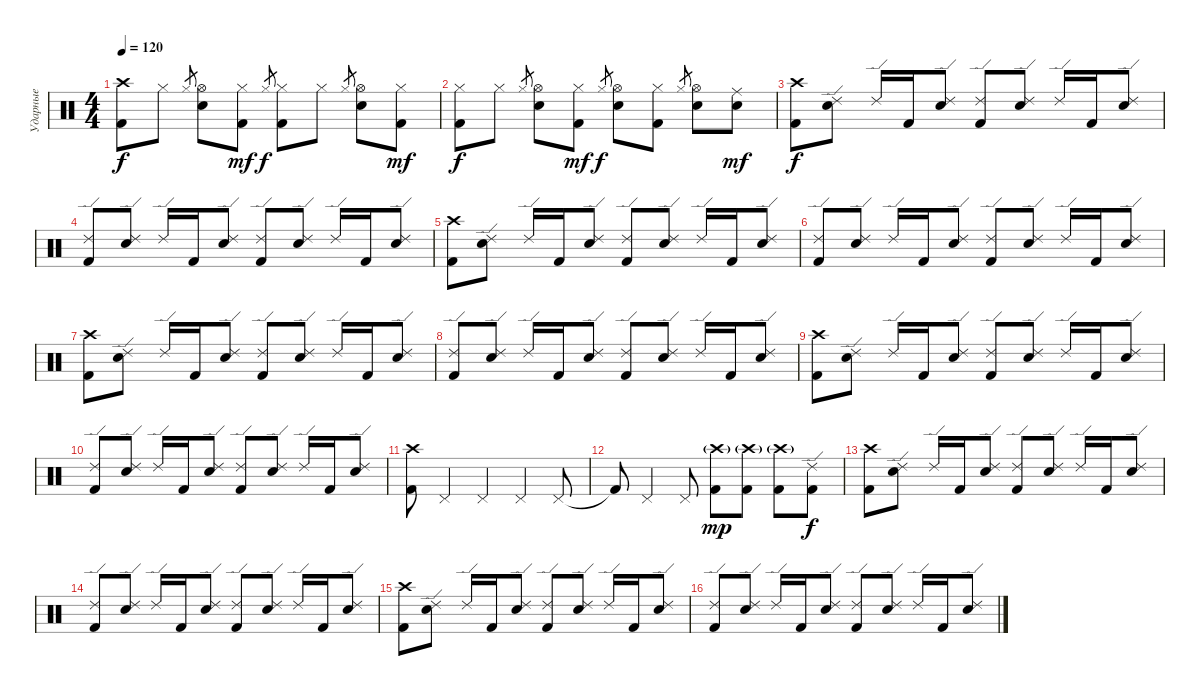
\track ("Ударные" "Ударные") {instrument percussion}
\staff {score}
\articulation defaults
\ts (4 4)
\tempo 120
\clef neutral
\ks c
("Kick (hit) 2" "Crash high (hit)").8{dy f} "Hi-Hat (closed)".8 "Hi-Hat (closed)".8{gr} ("Electric Snare (hit)" "Hi-Hat (open)").8 ("Kick (hit) 2" "Hi-Hat (closed)").8{dy mf} "Hi-Hat (closed)".8{gr dy f} ("Kick (hit) 2" "Hi-Hat (closed)").8 "Hi-Hat (closed)".8 "Hi-Hat (closed)".8{gr} ("Electric Snare (hit)" "Hi-Hat (open)").8 ("Kick (hit) 2" "Hi-Hat (closed)").8{dy mf} |
("Kick (hit) 2" "Hi-Hat (closed)").8{dy f} "Hi-Hat (closed)".8 "Hi-Hat (closed)".8{gr} ("Electric Snare (hit)" "Hi-Hat (open)").8 ("Kick (hit) 2" "Hi-Hat (closed)").8{dy mf} "Hi-Hat (closed)".8{gr dy f} ("Electric Snare (hit)" "Hi-Hat (open)").8 ("Kick (hit) 2" "Hi-Hat (closed)").8 "Hi-Hat (closed)".8{gr} ("Electric Snare (hit)" "Hi-Hat (open)").8 ("Electric Snare (hit)" "Ride (middle)").8{dy mf} |
("Kick (hit) 2" "Crash high (hit)").8{dy f} ("Electric Snare (hit)" "Ride (edge) 2").8 "Ride (edge) 2".16 "Kick (hit) 2".16 ("Electric Snare (hit)" "Ride (edge) 2").8 ("Kick (hit) 2" "Ride (edge) 2").8 ("Electric Snare (hit)" "Ride (edge) 2").8 "Ride (edge) 2".16 "Kick (hit) 2".16 ("Electric Snare (hit)" "Ride (edge) 2").8 |
("Kick (hit) 2" "Ride (edge) 2").8 ("Electric Snare (hit)" "Ride (edge) 2").8 "Ride (edge) 2".16 "Kick (hit) 2".16 ("Electric Snare (hit)" "Ride (edge) 2").8 ("Kick (hit) 2" "Ride (edge) 2").8 ("Electric Snare (hit)" "Ride (edge) 2").8 "Ride (edge) 2".16 "Kick (hit) 2".16 ("Electric Snare (hit)" "Ride (edge) 2").8 |
("Kick (hit) 2" "Crash high (hit)").8 ("Electric Snare (hit)" "Ride (edge) 2").8 "Ride (edge) 2".16 "Kick (hit) 2".16 ("Electric Snare (hit)" "Ride (edge) 2").8 ("Kick (hit) 2" "Ride (edge) 2").8 ("Electric Snare (hit)" "Ride (edge) 2").8 "Ride (edge) 2".16 "Kick (hit) 2".16 ("Electric Snare (hit)" "Ride (edge) 2").8 |
("Kick (hit) 2" "Ride (edge) 2").8 ("Electric Snare (hit)" "Ride (edge) 2").8 "Ride (edge) 2".16 "Kick (hit) 2".16 ("Electric Snare (hit)" "Ride (edge) 2").8 ("Kick (hit) 2" "Ride (edge) 2").8 ("Electric Snare (hit)" "Ride (edge) 2").8 "Ride (edge) 2".16 "Kick (hit) 2".16 ("Electric Snare (hit)" "Ride (edge) 2").8 |
("Kick (hit) 2" "Crash high (hit)").8 ("Electric Snare (hit)" "Ride (edge) 2").8 "Ride (edge) 2".16 "Kick (hit) 2".16 ("Electric Snare (hit)" "Ride (edge) 2").8 ("Kick (hit) 2" "Ride (edge) 2").8 ("Electric Snare (hit)" "Ride (edge) 2").8 "Ride (edge) 2".16 "Kick (hit) 2".16 ("Electric Snare (hit)" "Ride (edge) 2").8 |
("Kick (hit) 2" "Ride (edge) 2").8 ("Electric Snare (hit)" "Ride (edge) 2").8 "Ride (edge) 2".16 "Kick (hit) 2".16 ("Electric Snare (hit)" "Ride (edge) 2").8 ("Kick (hit) 2" "Ride (edge) 2").8 ("Electric Snare (hit)" "Ride (edge) 2").8 "Ride (edge) 2".16 "Kick (hit) 2".16 ("Electric Snare (hit)" "Ride (edge) 2").8 |
("Kick (hit) 2" "Crash high (hit)").8 ("Electric Snare (hit)" "Ride (edge) 2").8 "Ride (edge) 2".16 "Kick (hit) 2".16 ("Electric Snare (hit)" "Ride (edge) 2").8 ("Kick (hit) 2" "Ride (edge) 2").8 ("Electric Snare (hit)" "Ride (edge) 2").8 "Ride (edge) 2".16 "Kick (hit) 2".16 ("Electric Snare (hit)" "Ride (edge) 2").8 |
("Kick (hit) 2" "Ride (edge) 2").8 ("Electric Snare (hit)" "Ride (edge) 2").8 "Ride (edge) 2".16 "Kick (hit) 2".16 ("Electric Snare (hit)" "Ride (edge) 2").8 ("Kick (hit) 2" "Ride (edge) 2").8 ("Electric Snare (hit)" "Ride (edge) 2").8 "Ride (edge) 2".16 "Kick (hit) 2".16 ("Electric Snare (hit)" "Ride (edge) 2").8 |
("Kick (hit) 2" "Crash high (hit)").8 "Pedal Hi-Hat (hit)".4 "Pedal Hi-Hat (hit)".4 "Pedal Hi-Hat (hit)".4 "Pedal Hi-Hat (hit)".8 |
"Kick (hit) 2"{t}.8 "Pedal Hi-Hat (hit)".4 "Pedal Hi-Hat (hit)".8 ("Kick (hit) 2" "Crash high (hit)"{g}).8{dy mp} ("Kick (hit) 2" "Crash high (hit)"{g}).8 ("Kick (hit) 2" "Crash high (hit)"{g}).8 ("Kick (hit) 2" "Ride (edge) 2").8{dy f} |
("Kick (hit) 2" "Crash high (hit)").8 ("Electric Snare (hit)" "Ride (edge) 2").8 "Ride (edge) 2".16 "Kick (hit) 2".16 ("Electric Snare (hit)" "Ride (edge) 2").8 ("Kick (hit) 2" "Ride (edge) 2").8 ("Electric Snare (hit)" "Ride (edge) 2").8 "Ride (edge) 2".16 "Kick (hit) 2".16 ("Electric Snare (hit)" "Ride (edge) 2").8 |
("Kick (hit) 2" "Ride (edge) 2").8 ("Electric Snare (hit)" "Ride (edge) 2").8 "Ride (edge) 2".16 "Kick (hit) 2".16 ("Electric Snare (hit)" "Ride (edge) 2").8 ("Kick (hit) 2" "Ride (edge) 2").8 ("Electric Snare (hit)" "Ride (edge) 2").8 "Ride (edge) 2".16 "Kick (hit) 2".16 ("Electric Snare (hit)" "Ride (edge) 2").8 |
("Kick (hit) 2" "Crash high (hit)").8 ("Electric Snare (hit)" "Ride (edge) 2").8 "Ride (edge) 2".16 "Kick (hit) 2".16 ("Electric Snare (hit)" "Ride (edge) 2").8 ("Kick (hit) 2" "Ride (edge) 2").8 ("Electric Snare (hit)" "Ride (edge) 2").8 "Ride (edge) 2".16 "Kick (hit) 2".16 ("Electric Snare (hit)" "Ride (edge) 2").8 |
("Kick (hit) 2" "Ride (edge) 2").8 ("Electric Snare (hit)" "Ride (edge) 2").8 "Ride (edge) 2".16 "Kick (hit) 2".16 ("Electric Snare (hit)" "Ride (edge) 2").8 ("Kick (hit) 2" "Ride (edge) 2").8 ("Electric Snare (hit)" "Ride (edge) 2").8 "Ride (edge) 2".16 "Kick (hit) 2".16 ("Electric Snare (hit)" "Ride (edge) 2").8
